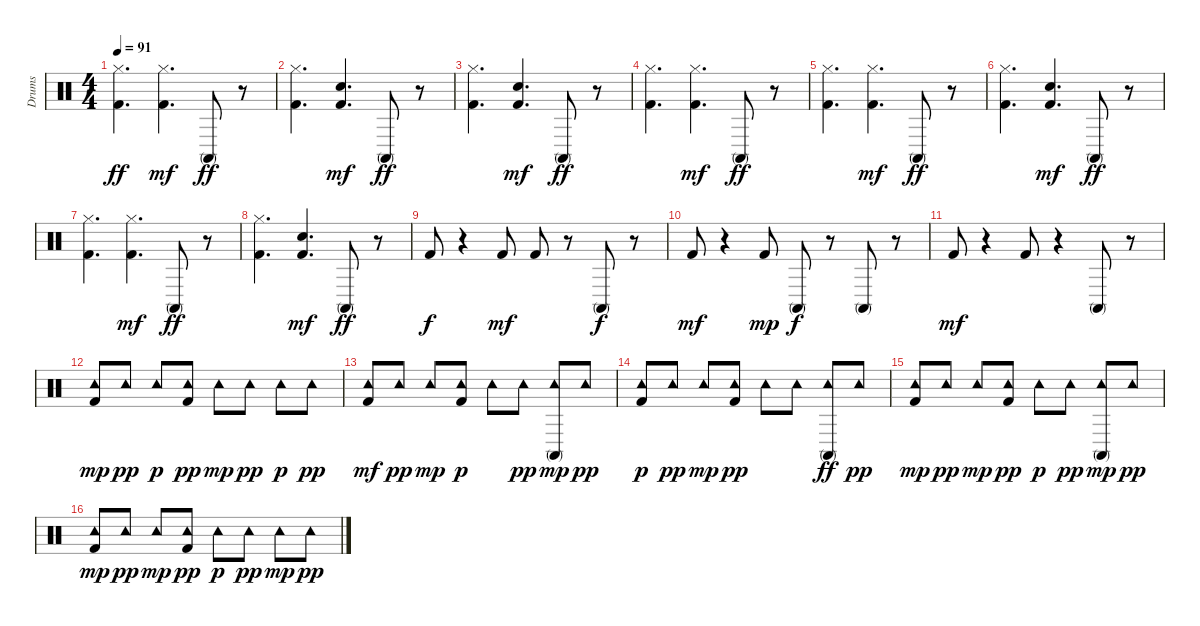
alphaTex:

\track ("Drums" "Drums") {instrument percussion}
\staff {score}
\articulation defaults
\ts (4 4)
\tempo 91
\clef neutral
\ks c
("Hi-Hat (closed)" "Kick (hit) 2").4{d dy ff} ("Hi-Hat (closed)" "Kick (hit) 2").4{d dy mf} "Conga high (mute)".8{dy ff} r.8 |
("Hi-Hat (closed)" "Kick (hit) 2").4{d} ("Hand Clap (hit)" "Kick (hit) 2").4{d dy mf} "Conga high (mute)".8{dy ff} r.8 |
("Hi-Hat (closed)" "Kick (hit) 2").4{d} ("Hand Clap (hit)" "Kick (hit) 2").4{d dy mf} "Conga high (mute)".8{dy ff} r.8 |
("Hi-Hat (closed)" "Kick (hit) 2").4{d} ("Hi-Hat (closed)" "Kick (hit) 2").4{d dy mf} "Conga high (mute)".8{dy ff} r.8 |
("Hi-Hat (closed)" "Kick (hit) 2").4{d} ("Hi-Hat (closed)" "Kick (hit) 2").4{d dy mf} "Conga high (mute)".8{dy ff} r.8 |
("Hi-Hat (closed)" "Kick (hit) 2").4{d} ("Hand Clap (hit)" "Kick (hit) 2").4{d dy mf} "Conga high (mute)".8{dy ff} r.8 |
("Hi-Hat (closed)" "Kick (hit) 2").4{d} ("Hi-Hat (closed)" "Kick (hit) 2").4{d dy mf} "Conga high (mute)".8{dy ff} r.8 |
("Hi-Hat (closed)" "Kick (hit) 2").4{d} ("Hand Clap (hit)" "Kick (hit) 2").4{d dy mf} "Conga high (mute)".8{dy ff} r.8 |
"Kick (hit) 2".8{dy f} r.4 "Kick (hit) 2".8{dy mf} "Kick (hit) 2".8 r.8 "Conga high (mute)".8{dy f} r.8 |
"Kick (hit) 2".8{dy mf} r.4 "Kick (hit) 2".8{dy mp} "Conga high (mute)".8{dy f} r.8 "Conga high (mute)".8 r.8 |
"Kick (hit) 2".8{dy mf} r.4 "Kick (hit) 2".8 r.4 "Conga high (mute)".8 r.8 |
("Kick (hit) 2" "Tambourine (hit)").8{dy mp} "Tambourine (hit)".8{dy pp} "Tambourine (hit)".8{dy p} ("Kick (hit) 2" "Tambourine (hit)").8{dy pp} "Tambourine (hit)".8{dy mp} "Tambourine (hit)".8{dy pp} "Tambourine (hit)".8{dy p} "Tambourine (hit)".8{dy pp} |
("Kick (hit) 2" "Tambourine (hit)").8{dy mf} "Tambourine (hit)".8{dy pp} "Tambourine (hit)".8{dy mp} ("Kick (hit) 2" "Tambourine (hit)").8{dy p} "Tambourine (hit)".8 "Tambourine (hit)".8{dy pp} ("Tambourine (hit)" "Conga high (mute)").8{dy mp} "Tambourine (hit)".8{dy pp} |
("Kick (hit) 2" "Tambourine (hit)").8{dy p} "Tambourine (hit)".8{dy pp} "Tambourine (hit)".8{dy mp} ("Kick (hit) 2" "Tambourine (hit)").8{dy pp} "Tambourine (hit)".8 "Tambourine (hit)".8 ("Tambourine (hit)" "Conga high (mute)").8{dy ff} "Tambourine (hit)".8{dy pp} |
("Kick (hit) 2" "Tambourine (hit)").8{dy mp} "Tambourine (hit)".8{dy pp} "Tambourine (hit)".8{dy mp} ("Kick (hit) 2" "Tambourine (hit)").8{dy pp} "Tambourine (hit)".8{dy p} "Tambourine (hit)".8{dy pp} ("Tambourine (hit)" "Conga high (mute)").8{dy mp} "Tambourine (hit)".8{dy pp} |
("Kick (hit) 2" "Tambourine (hit)").8{dy mp} "Tambourine (hit)".8{dy pp} "Tambourine (hit)".8{dy mp} ("Kick (hit) 2" "Tambourine (hit)").8{dy pp} "Tambourine (hit)".8{dy p} "Tambourine (hit)".8{dy pp} "Tambourine (hit)".8{dy mp} "Tambourine (hit)".8{dy pp}
